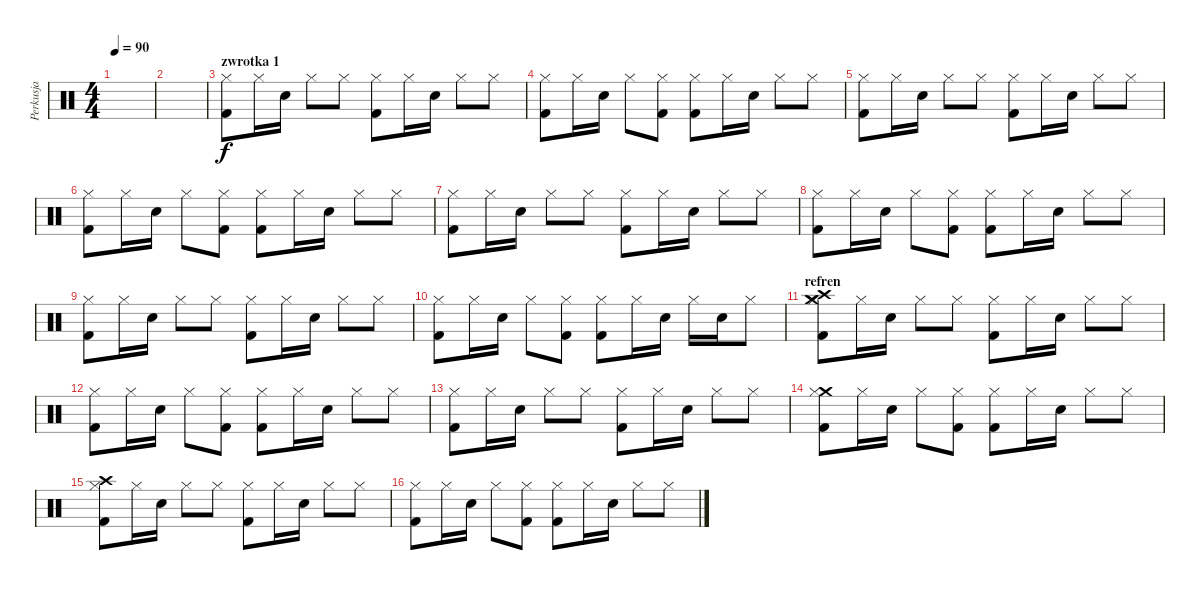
\track ("Perkusja" "Perkusja") {instrument percussion}
\staff {score}
\articulation defaults
\ts (4 4)
\tempo 90
\clef neutral
\ks c
|
|
\section ("" "zwrotka 1")
("Kick (hit) 2" "Hi-Hat (closed)").8 "Hi-Hat (closed)".16 "Electric Snare (hit)".16 "Hi-Hat (closed)".8 "Hi-Hat (closed)".8 ("Kick (hit) 2" "Hi-Hat (closed)").8 "Hi-Hat (closed)".16 "Electric Snare (hit)".16 "Hi-Hat (closed)".8 "Hi-Hat (closed)".8 |
("Kick (hit) 2" "Hi-Hat (closed)").8 "Hi-Hat (closed)".16 "Electric Snare (hit)".16 "Hi-Hat (closed)".8 ("Kick (hit) 2" "Hi-Hat (closed)").8 ("Kick (hit) 2" "Hi-Hat (closed)").8 "Hi-Hat (closed)".16 "Electric Snare (hit)".16 "Hi-Hat (closed)".8 "Hi-Hat (closed)".8 |
("Kick (hit) 2" "Hi-Hat (closed)").8 "Hi-Hat (closed)".16 "Electric Snare (hit)".16 "Hi-Hat (closed)".8 "Hi-Hat (closed)".8 ("Kick (hit) 2" "Hi-Hat (closed)").8 "Hi-Hat (closed)".16 "Electric Snare (hit)".16 "Hi-Hat (closed)".8 "Hi-Hat (closed)".8 |
("Kick (hit) 2" "Hi-Hat (closed)").8 "Hi-Hat (closed)".16 "Electric Snare (hit)".16 "Hi-Hat (closed)".8 ("Kick (hit) 2" "Hi-Hat (closed)").8 ("Kick (hit) 2" "Hi-Hat (closed)").8 "Hi-Hat (closed)".16 "Electric Snare (hit)".16 "Hi-Hat (closed)".8 "Hi-Hat (closed)".8 |
("Kick (hit) 2" "Hi-Hat (closed)").8 "Hi-Hat (closed)".16 "Electric Snare (hit)".16 "Hi-Hat (closed)".8 "Hi-Hat (closed)".8 ("Kick (hit) 2" "Hi-Hat (closed)").8 "Hi-Hat (closed)".16 "Electric Snare (hit)".16 "Hi-Hat (closed)".8 "Hi-Hat (closed)".8 |
("Kick (hit) 2" "Hi-Hat (closed)").8 "Hi-Hat (closed)".16 "Electric Snare (hit)".16 "Hi-Hat (closed)".8 ("Kick (hit) 2" "Hi-Hat (closed)").8 ("Kick (hit) 2" "Hi-Hat (closed)").8 "Hi-Hat (closed)".16 "Electric Snare (hit)".16 "Hi-Hat (closed)".8 "Hi-Hat (closed)".8 |
("Kick (hit) 2" "Hi-Hat (closed)").8 "Hi-Hat (closed)".16 "Electric Snare (hit)".16 "Hi-Hat (closed)".8 "Hi-Hat (closed)".8 ("Kick (hit) 2" "Hi-Hat (closed)").8 "Hi-Hat (closed)".16 "Electric Snare (hit)".16 "Hi-Hat (closed)".8 "Hi-Hat (closed)".8 |
("Kick (hit) 2" "Hi-Hat (closed)").8 "Hi-Hat (closed)".16 "Electric Snare (hit)".16 "Hi-Hat (closed)".8 ("Kick (hit) 2" "Hi-Hat (closed)").8 ("Kick (hit) 2" "Hi-Hat (closed)").8 "Hi-Hat (closed)".16 "Electric Snare (hit)".16 "Hi-Hat (closed)".16 "Electric Snare (hit)".16 "Hi-Hat (closed)".8 |
\section ("" "refren")
("Crash medium (hit)" "Crash high (hit)" "Kick (hit) 2" "Hi-Hat (closed)").8 "Hi-Hat (closed)".16 "Electric Snare (hit)".16 "Hi-Hat (closed)".8 "Hi-Hat (closed)".8 ("Kick (hit) 2" "Hi-Hat (closed)").8 "Hi-Hat (closed)".16 "Electric Snare (hit)".16 "Hi-Hat (closed)".8 "Hi-Hat (closed)".8 |
("Kick (hit) 2" "Hi-Hat (closed)").8 "Hi-Hat (closed)".16 "Electric Snare (hit)".16 "Hi-Hat (closed)".8 ("Kick (hit) 2" "Hi-Hat (closed)").8 ("Kick (hit) 2" "Hi-Hat (closed)").8 "Hi-Hat (closed)".16 "Electric Snare (hit)".16 "Hi-Hat (closed)".8 "Hi-Hat (closed)".8 |
("Kick (hit) 2" "Hi-Hat (closed)").8 "Hi-Hat (closed)".16 "Electric Snare (hit)".16 "Hi-Hat (closed)".8 "Hi-Hat (closed)".8 ("Kick (hit) 2" "Hi-Hat (closed)").8 "Hi-Hat (closed)".16 "Electric Snare (hit)".16 "Hi-Hat (closed)".8 "Hi-Hat (closed)".8 |
("Crash medium (hit)" "Kick (hit) 2" "Hi-Hat (closed)").8 "Hi-Hat (closed)".16 "Electric Snare (hit)".16 "Hi-Hat (closed)".8 ("Kick (hit) 2" "Hi-Hat (closed)").8 ("Kick (hit) 2" "Hi-Hat (closed)").8 "Hi-Hat (closed)".16 "Electric Snare (hit)".16 "Hi-Hat (closed)".8 "Hi-Hat (closed)".8 |
("Crash high (hit)" "Kick (hit) 2" "Hi-Hat (closed)").8 "Hi-Hat (closed)".16 "Electric Snare (hit)".16 "Hi-Hat (closed)".8 "Hi-Hat (closed)".8 ("Kick (hit) 2" "Hi-Hat (closed)").8 "Hi-Hat (closed)".16 "Electric Snare (hit)".16 "Hi-Hat (closed)".8 "Hi-Hat (closed)".8 |
("Kick (hit) 2" "Hi-Hat (closed)").8 "Hi-Hat (closed)".16 "Electric Snare (hit)".16 "Hi-Hat (closed)".8 ("Kick (hit) 2" "Hi-Hat (closed)").8 ("Kick (hit) 2" "Hi-Hat (closed)").8 "Hi-Hat (closed)".16 "Electric Snare (hit)".16 "Hi-Hat (closed)".8 "Hi-Hat (closed)".8
